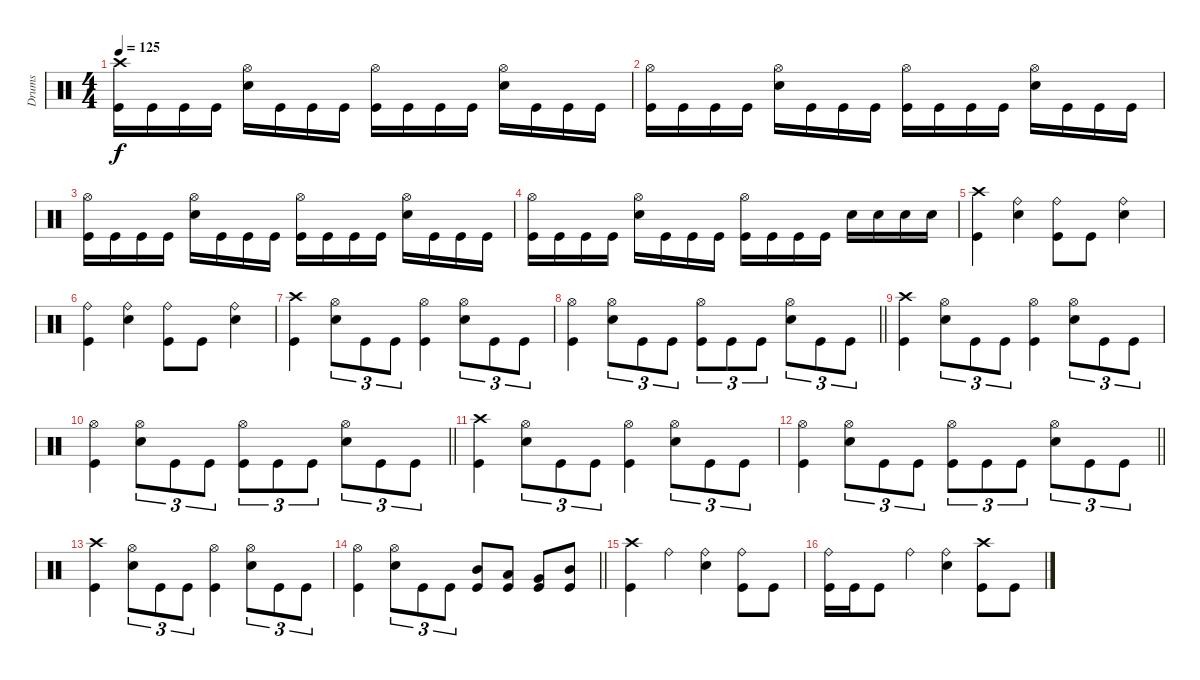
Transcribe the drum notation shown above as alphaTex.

\track ("Drums" "Drums") {instrument percussion}
\staff {score}
\articulation defaults
\ts (4 4)
\tempo 125
\clef neutral
\ks c
("Crash high (hit)" "Kick (hit)").16{dy f} "Kick (hit)".16 "Kick (hit)".16 "Kick (hit)".16 ("Hi-Hat (open)" "Electric Snare (hit)").16 "Kick (hit)".16 "Kick (hit)".16 "Kick (hit)".16 ("Hi-Hat (open)" "Kick (hit)").16 "Kick (hit)".16 "Kick (hit)".16 "Kick (hit)".16 ("Hi-Hat (open)" "Electric Snare (hit)").16 "Kick (hit)".16 "Kick (hit)".16 "Kick (hit)".16 |
("Hi-Hat (open)" "Kick (hit)").16 "Kick (hit)".16 "Kick (hit)".16 "Kick (hit)".16 ("Hi-Hat (open)" "Electric Snare (hit)").16 "Kick (hit)".16 "Kick (hit)".16 "Kick (hit)".16 ("Hi-Hat (open)" "Kick (hit)").16 "Kick (hit)".16 "Kick (hit)".16 "Kick (hit)".16 ("Hi-Hat (open)" "Electric Snare (hit)").16 "Kick (hit)".16 "Kick (hit)".16 "Kick (hit)".16 |
("Hi-Hat (open)" "Kick (hit)").16 "Kick (hit)".16 "Kick (hit)".16 "Kick (hit)".16 ("Hi-Hat (open)" "Electric Snare (hit)").16 "Kick (hit)".16 "Kick (hit)".16 "Kick (hit)".16 ("Hi-Hat (open)" "Kick (hit)").16 "Kick (hit)".16 "Kick (hit)".16 "Kick (hit)".16 ("Hi-Hat (open)" "Electric Snare (hit)").16 "Kick (hit)".16 "Kick (hit)".16 "Kick (hit)".16 |
("Hi-Hat (open)" "Kick (hit)").16 "Kick (hit)".16 "Kick (hit)".16 "Kick (hit)".16 ("Hi-Hat (open)" "Electric Snare (hit)").16 "Kick (hit)".16 "Kick (hit)".16 "Kick (hit)".16 ("Hi-Hat (open)" "Kick (hit)").16 "Kick (hit)".16 "Kick (hit)".16 "Kick (hit)".16 "Electric Snare (hit)".16 "Electric Snare (hit)".16 "Electric Snare (hit)".16 "Electric Snare (hit)".16 |
("Crash high (hit)" "Kick (hit)").4 ("Ride (bell)" "Electric Snare (hit)").4 ("Ride (bell)" "Kick (hit)").8 "Kick (hit)".8 ("Ride (bell)" "Electric Snare (hit)").4 |
("Ride (bell)" "Kick (hit)").4 ("Ride (bell)" "Electric Snare (hit)").4 ("Ride (bell)" "Kick (hit)").8 "Kick (hit)".8 ("Ride (bell)" "Electric Snare (hit)").4 |
("Crash high (hit)" "Kick (hit)").4 ("Hi-Hat (open)" "Electric Snare (hit)").8{tu (3 2)} "Kick (hit)".8{tu (3 2)} "Kick (hit)".8{tu (3 2)} ("Hi-Hat (open)" "Kick (hit)").4 ("Hi-Hat (open)" "Electric Snare (hit)").8{tu (3 2)} "Kick (hit)".8{tu (3 2)} "Kick (hit)".8{tu (3 2)} |
\barLineRight lightlight
("Hi-Hat (open)" "Kick (hit)").4 ("Hi-Hat (open)" "Electric Snare (hit)").8{tu (3 2)} "Kick (hit)".8{tu (3 2)} "Kick (hit)".8{tu (3 2)} ("Hi-Hat (open)" "Kick (hit)").8{tu (3 2)} "Kick (hit)".8{tu (3 2)} "Kick (hit)".8{tu (3 2)} ("Hi-Hat (open)" "Electric Snare (hit)").8{tu (3 2)} "Kick (hit)".8{tu (3 2)} "Kick (hit)".8{tu (3 2)} |
("Crash high (hit)" "Kick (hit)").4 ("Hi-Hat (open)" "Electric Snare (hit)").8{tu (3 2)} "Kick (hit)".8{tu (3 2)} "Kick (hit)".8{tu (3 2)} ("Hi-Hat (open)" "Kick (hit)").4 ("Hi-Hat (open)" "Electric Snare (hit)").8{tu (3 2)} "Kick (hit)".8{tu (3 2)} "Kick (hit)".8{tu (3 2)} |
\barLineRight lightlight
("Hi-Hat (open)" "Kick (hit)").4 ("Hi-Hat (open)" "Electric Snare (hit)").8{tu (3 2)} "Kick (hit)".8{tu (3 2)} "Kick (hit)".8{tu (3 2)} ("Hi-Hat (open)" "Kick (hit)").8{tu (3 2)} "Kick (hit)".8{tu (3 2)} "Kick (hit)".8{tu (3 2)} ("Hi-Hat (open)" "Electric Snare (hit)").8{tu (3 2)} "Kick (hit)".8{tu (3 2)} "Kick (hit)".8{tu (3 2)} |
("Crash high (hit)" "Kick (hit)").4 ("Hi-Hat (open)" "Electric Snare (hit)").8{tu (3 2)} "Kick (hit)".8{tu (3 2)} "Kick (hit)".8{tu (3 2)} ("Hi-Hat (open)" "Kick (hit)").4 ("Hi-Hat (open)" "Electric Snare (hit)").8{tu (3 2)} "Kick (hit)".8{tu (3 2)} "Kick (hit)".8{tu (3 2)} |
\barLineRight lightlight
("Hi-Hat (open)" "Kick (hit)").4 ("Hi-Hat (open)" "Electric Snare (hit)").8{tu (3 2)} "Kick (hit)".8{tu (3 2)} "Kick (hit)".8{tu (3 2)} ("Hi-Hat (open)" "Kick (hit)").8{tu (3 2)} "Kick (hit)".8{tu (3 2)} "Kick (hit)".8{tu (3 2)} ("Hi-Hat (open)" "Electric Snare (hit)").8{tu (3 2)} "Kick (hit)".8{tu (3 2)} "Kick (hit)".8{tu (3 2)} |
("Crash high (hit)" "Kick (hit)").4 ("Hi-Hat (open)" "Electric Snare (hit)").8{tu (3 2)} "Kick (hit)".8{tu (3 2)} "Kick (hit)".8{tu (3 2)} ("Hi-Hat (open)" "Kick (hit)").4 ("Hi-Hat (open)" "Electric Snare (hit)").8{tu (3 2)} "Kick (hit)".8{tu (3 2)} "Kick (hit)".8{tu (3 2)} |
\barLineRight lightlight
("Hi-Hat (open)" "Kick (hit)").4 ("Hi-Hat (open)" "Electric Snare (hit)").8{tu (3 2)} "Kick (hit)".8{tu (3 2)} "Kick (hit)".8{tu (3 2)} ("Mid Tom (hit)" "Kick (hit)").8 ("Low Tom (hit)" "Kick (hit)").8 ("Very Low Tom (hit)" "Kick (hit)").8 ("Mid Tom (hit)" "Kick (hit)").8 |
\section ("" "")
("Crash high (hit)" "Kick (hit)").4 "Ride (bell)".4 ("Ride (bell)" "Electric Snare (hit)").4 ("Ride (bell)" "Kick (hit)").8 "Kick (hit)".8 |
("Ride (bell)" "Kick (hit)").16 "Kick (hit)".16 "Kick (hit)".8 "Ride (bell)".4 ("Ride (bell)" "Electric Snare (hit)").4 ("Crash high (hit)" "Kick (hit)").8 "Kick (hit)".8
